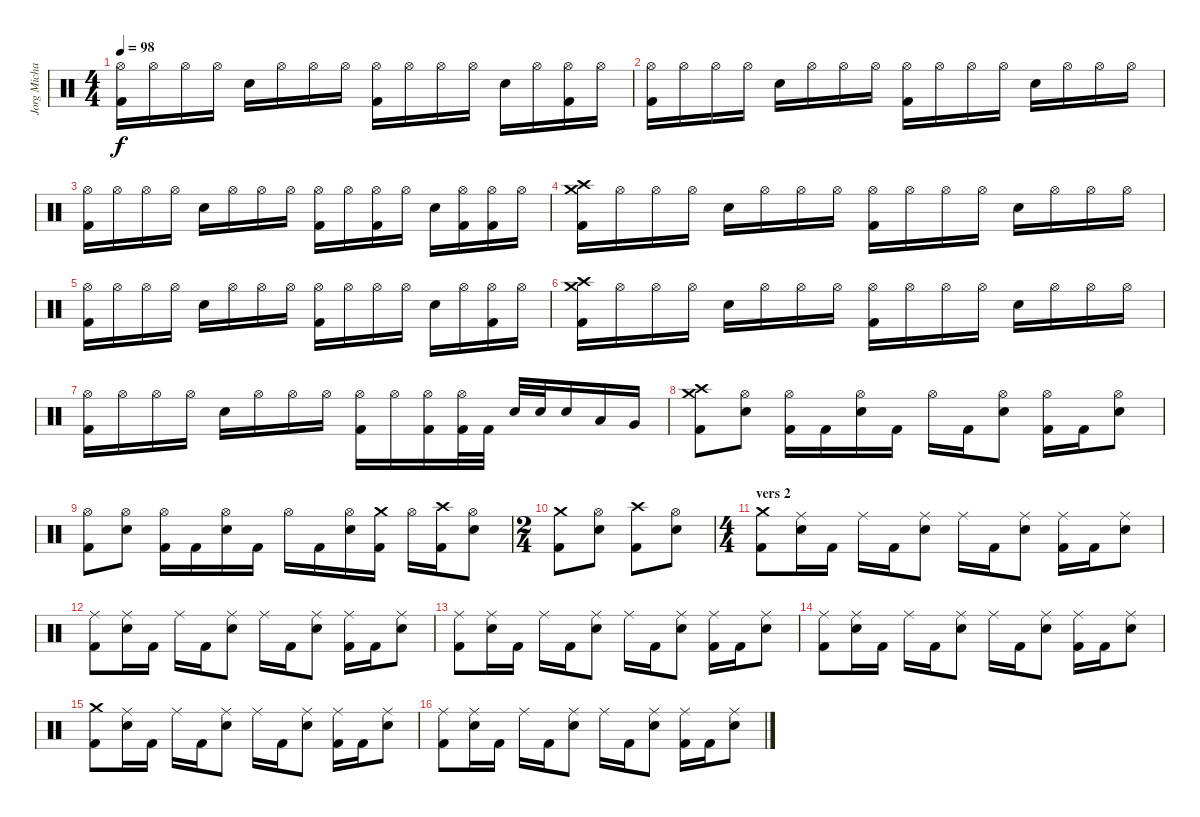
\track ("Jorg Michael" "Jorg Micha") {instrument percussion}
\staff {score}
\articulation defaults
\ts (4 4)
\tempo 98
\clef neutral
\ks c
("Hi-Hat (open)" "Kick (hit) 2").16{dy f} "Hi-Hat (open)".16 "Hi-Hat (open)".16 "Hi-Hat (open)".16 "Electric Snare (hit)".16 "Hi-Hat (open)".16 "Hi-Hat (open)".16 "Hi-Hat (open)".16 ("Hi-Hat (open)" "Kick (hit) 2").16 "Hi-Hat (open)".16 "Hi-Hat (open)".16 "Hi-Hat (open)".16 "Electric Snare (hit)".16 "Hi-Hat (open)".16 ("Hi-Hat (open)" "Kick (hit) 2").16 "Hi-Hat (open)".16 |
("Hi-Hat (open)" "Kick (hit) 2").16 "Hi-Hat (open)".16 "Hi-Hat (open)".16 "Hi-Hat (open)".16 "Electric Snare (hit)".16 "Hi-Hat (open)".16 "Hi-Hat (open)".16 "Hi-Hat (open)".16 ("Hi-Hat (open)" "Kick (hit) 2").16 "Hi-Hat (open)".16 "Hi-Hat (open)".16 "Hi-Hat (open)".16 "Electric Snare (hit)".16 "Hi-Hat (open)".16 "Hi-Hat (open)".16 "Hi-Hat (open)".16 |
("Hi-Hat (open)" "Kick (hit) 2").16 "Hi-Hat (open)".16 "Hi-Hat (open)".16 "Hi-Hat (open)".16 "Electric Snare (hit)".16 "Hi-Hat (open)".16 "Hi-Hat (open)".16 "Hi-Hat (open)".16 ("Hi-Hat (open)" "Kick (hit) 2").16 "Hi-Hat (open)".16 ("Hi-Hat (open)" "Kick (hit) 2").16 "Hi-Hat (open)".16 "Electric Snare (hit)".16 ("Hi-Hat (open)" "Kick (hit) 2").16 ("Hi-Hat (open)" "Kick (hit) 2").16 "Hi-Hat (open)".16 |
("Crash medium (hit)" "Crash high (hit)" "Kick (hit) 2").16 "Hi-Hat (open)".16 "Hi-Hat (open)".16 "Hi-Hat (open)".16 "Electric Snare (hit)".16 "Hi-Hat (open)".16 "Hi-Hat (open)".16 "Hi-Hat (open)".16 ("Hi-Hat (open)" "Kick (hit) 2").16 "Hi-Hat (open)".16 "Hi-Hat (open)".16 "Hi-Hat (open)".16 "Electric Snare (hit)".16 "Hi-Hat (open)".16 "Hi-Hat (open)".16 "Hi-Hat (open)".16 |
("Hi-Hat (open)" "Kick (hit) 2").16 "Hi-Hat (open)".16 "Hi-Hat (open)".16 "Hi-Hat (open)".16 "Electric Snare (hit)".16 "Hi-Hat (open)".16 "Hi-Hat (open)".16 "Hi-Hat (open)".16 ("Hi-Hat (open)" "Kick (hit) 2").16 "Hi-Hat (open)".16 "Hi-Hat (open)".16 "Hi-Hat (open)".16 "Electric Snare (hit)".16 "Hi-Hat (open)".16 ("Hi-Hat (open)" "Kick (hit) 2").16 "Hi-Hat (open)".16 |
("Crash medium (hit)" "Crash high (hit)" "Kick (hit) 2").16 "Hi-Hat (open)".16 "Hi-Hat (open)".16 "Hi-Hat (open)".16 "Electric Snare (hit)".16 "Hi-Hat (open)".16 "Hi-Hat (open)".16 "Hi-Hat (open)".16 ("Hi-Hat (open)" "Kick (hit) 2").16 "Hi-Hat (open)".16 "Hi-Hat (open)".16 "Hi-Hat (open)".16 "Electric Snare (hit)".16 "Hi-Hat (open)".16 "Hi-Hat (open)".16 "Hi-Hat (open)".16 |
("Hi-Hat (open)" "Kick (hit) 2").16 "Hi-Hat (open)".16 "Hi-Hat (open)".16 "Hi-Hat (open)".16 "Electric Snare (hit)".16 "Hi-Hat (open)".16 "Hi-Hat (open)".16 "Hi-Hat (open)".16 ("Hi-Hat (open)" "Kick (hit) 2").16 "Hi-Hat (open)".16 ("Hi-Hat (open)" "Kick (hit) 2").16 ("Hi-Hat (open)" "Kick (hit) 2").32 "Kick (hit) 2".32 "Electric Snare (hit)".32 "Electric Snare (hit)".32 "Electric Snare (hit)".16 "Low Tom (hit)".16 "Very Low Tom (hit)".16 |
("Crash medium (hit)" "Crash high (hit)" "Kick (hit) 2").8 ("Hi-Hat (open)" "Electric Snare (hit)").8 ("Hi-Hat (open)" "Kick (hit) 2").16 "Kick (hit) 2".16 ("Hi-Hat (open)" "Electric Snare (hit)").16 "Kick (hit) 2".16 "Hi-Hat (open)".16 "Kick (hit) 2".16 ("Hi-Hat (open)" "Electric Snare (hit)").8 ("Hi-Hat (open)" "Kick (hit) 2").16 "Kick (hit) 2".16 ("Hi-Hat (open)" "Electric Snare (hit)").8 |
("Hi-Hat (open)" "Kick (hit) 2").8 ("Hi-Hat (open)" "Electric Snare (hit)").8 ("Hi-Hat (open)" "Kick (hit) 2").16 "Kick (hit) 2".16 ("Hi-Hat (open)" "Electric Snare (hit)").16 "Kick (hit) 2".16 "Hi-Hat (open)".16 "Kick (hit) 2".16 ("Hi-Hat (open)" "Electric Snare (hit)").16 ("Crash medium (hit)" "Kick (hit) 2").16 "Hi-Hat (open)".16 ("Crash high (hit)" "Kick (hit) 2").16 ("Hi-Hat (open)" "Electric Snare (hit)").8 |
\ts (2 4)
("Crash medium (hit)" "Kick (hit) 2").8 ("Hi-Hat (open)" "Electric Snare (hit)").8 ("Crash high (hit)" "Kick (hit) 2").8 ("Hi-Hat (open)" "Electric Snare (hit)").8 |
\ts (4 4)
\section ("" "vers 2")
("Crash medium (hit)" "Kick (hit) 2").8 ("Ride (middle)" "Electric Snare (hit)").16 "Kick (hit) 2".16 "Ride (middle)".16 "Kick (hit) 2".16 ("Ride (middle)" "Electric Snare (hit)").8 "Ride (middle)".16 "Kick (hit) 2".16 ("Ride (middle)" "Electric Snare (hit)").8 ("Ride (middle)" "Kick (hit) 2").16 "Kick (hit) 2".16 ("Ride (middle)" "Electric Snare (hit)").8 |
("Ride (middle)" "Kick (hit) 2").8 ("Ride (middle)" "Electric Snare (hit)").16 "Kick (hit) 2".16 "Ride (middle)".16 "Kick (hit) 2".16 ("Ride (middle)" "Electric Snare (hit)").8 "Ride (middle)".16 "Kick (hit) 2".16 ("Ride (middle)" "Electric Snare (hit)").8 ("Ride (middle)" "Kick (hit) 2").16 "Kick (hit) 2".16 ("Ride (middle)" "Electric Snare (hit)").8 |
("Ride (middle)" "Kick (hit) 2").8 ("Ride (middle)" "Electric Snare (hit)").16 "Kick (hit) 2".16 "Ride (middle)".16 "Kick (hit) 2".16 ("Ride (middle)" "Electric Snare (hit)").8 "Ride (middle)".16 "Kick (hit) 2".16 ("Ride (middle)" "Electric Snare (hit)").8 ("Ride (middle)" "Kick (hit) 2").16 "Kick (hit) 2".16 ("Ride (middle)" "Electric Snare (hit)").8 |
("Ride (middle)" "Kick (hit) 2").8 ("Ride (middle)" "Electric Snare (hit)").16 "Kick (hit) 2".16 "Ride (middle)".16 "Kick (hit) 2".16 ("Ride (middle)" "Electric Snare (hit)").8 "Ride (middle)".16 "Kick (hit) 2".16 ("Ride (middle)" "Electric Snare (hit)").8 ("Ride (middle)" "Kick (hit) 2").16 "Kick (hit) 2".16 ("Ride (middle)" "Electric Snare (hit)").8 |
("Crash medium (hit)" "Kick (hit) 2").8 ("Ride (middle)" "Electric Snare (hit)").16 "Kick (hit) 2".16 "Ride (middle)".16 "Kick (hit) 2".16 ("Ride (middle)" "Electric Snare (hit)").8 "Ride (middle)".16 "Kick (hit) 2".16 ("Ride (middle)" "Electric Snare (hit)").8 ("Ride (middle)" "Kick (hit) 2").16 "Kick (hit) 2".16 ("Ride (middle)" "Electric Snare (hit)").8 |
("Ride (middle)" "Kick (hit) 2").8 ("Ride (middle)" "Electric Snare (hit)").16 "Kick (hit) 2".16 "Ride (middle)".16 "Kick (hit) 2".16 ("Ride (middle)" "Electric Snare (hit)").8 "Ride (middle)".16 "Kick (hit) 2".16 ("Ride (middle)" "Electric Snare (hit)").8 ("Ride (middle)" "Kick (hit) 2").16 "Kick (hit) 2".16 ("Ride (middle)" "Electric Snare (hit)").8
